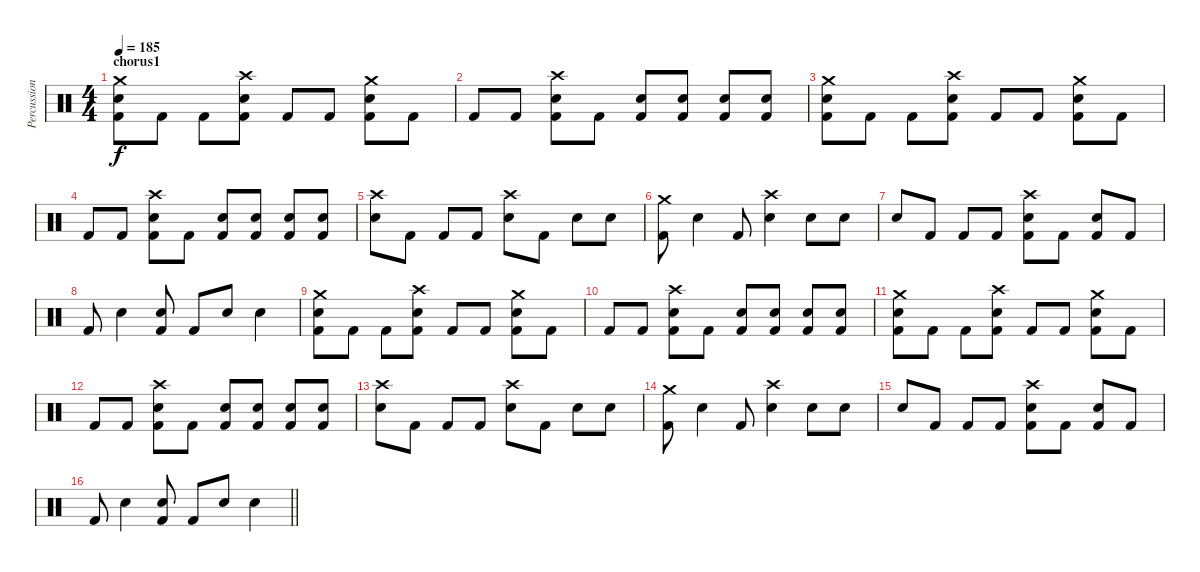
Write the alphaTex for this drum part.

\track ("Percussion" "Percussion") {instrument percussion}
\staff {score}
\articulation defaults
\ts (4 4)
\section ("" "chorus1")
\tempo 185
\clef neutral
\ks c
("Crash medium (hit)" "Snare (hit) 2" "Kick (hit) 2").8{dy f} "Kick (hit) 2".8 "Kick (hit) 2".8 ("Crash high (hit)" "Snare (hit) 2" "Kick (hit) 2").8 "Kick (hit) 2".8 "Kick (hit) 2".8 ("Crash medium (hit)" "Snare (hit) 2" "Kick (hit) 2").8 "Kick (hit) 2".8 |
"Kick (hit) 2".8 "Kick (hit) 2".8 ("Crash high (hit)" "Snare (hit) 2" "Kick (hit) 2").8 "Kick (hit) 2".8 ("Snare (hit) 2" "Kick (hit) 2").8 ("Snare (hit) 2" "Kick (hit) 2").8 ("Snare (hit) 2" "Kick (hit) 2").8 ("Snare (hit) 2" "Kick (hit) 2").8 |
("Crash medium (hit)" "Snare (hit) 2" "Kick (hit) 2").8 "Kick (hit) 2".8 "Kick (hit) 2".8 ("Crash high (hit)" "Snare (hit) 2" "Kick (hit) 2").8 "Kick (hit) 2".8 "Kick (hit) 2".8 ("Crash medium (hit)" "Snare (hit) 2" "Kick (hit) 2").8 "Kick (hit) 2".8 |
"Kick (hit) 2".8 "Kick (hit) 2".8 ("Crash high (hit)" "Snare (hit) 2" "Kick (hit) 2").8 "Kick (hit) 2".8 ("Snare (hit) 2" "Kick (hit) 2").8 ("Snare (hit) 2" "Kick (hit) 2").8 ("Snare (hit) 2" "Kick (hit) 2").8 ("Snare (hit) 2" "Kick (hit) 2").8 |
("Crash high (hit)" "Snare (hit) 2").8 "Kick (hit) 2".8 "Kick (hit) 2".8 "Kick (hit) 2".8 ("Crash high (hit)" "Snare (hit) 2").8 "Kick (hit) 2".8 "Snare (hit) 2".8 "Snare (hit) 2".8 |
("Crash medium (hit)" "Kick (hit) 2").8 "Snare (hit) 2".4 "Kick (hit) 2".8 ("Crash high (hit)" "Snare (hit) 2").4 "Snare (hit) 2".8 "Snare (hit) 2".8 |
"Snare (hit) 2".8 "Kick (hit) 2".8 "Kick (hit) 2".8 "Kick (hit) 2".8 ("Crash high (hit)" "Snare (hit) 2" "Kick (hit) 2").8 "Kick (hit) 2".8 ("Snare (hit) 2" "Kick (hit) 2").8 "Kick (hit) 2".8 |
"Kick (hit) 2".8 "Snare (hit) 2".4 ("Snare (hit) 2" "Kick (hit) 2").8 "Kick (hit) 2".8 "Snare (hit) 2".8 "Snare (hit) 2".4 |
("Crash medium (hit)" "Snare (hit) 2" "Kick (hit) 2").8 "Kick (hit) 2".8 "Kick (hit) 2".8 ("Crash high (hit)" "Snare (hit) 2" "Kick (hit) 2").8 "Kick (hit) 2".8 "Kick (hit) 2".8 ("Crash medium (hit)" "Snare (hit) 2" "Kick (hit) 2").8 "Kick (hit) 2".8 |
"Kick (hit) 2".8 "Kick (hit) 2".8 ("Crash high (hit)" "Snare (hit) 2" "Kick (hit) 2").8 "Kick (hit) 2".8 ("Snare (hit) 2" "Kick (hit) 2").8 ("Snare (hit) 2" "Kick (hit) 2").8 ("Snare (hit) 2" "Kick (hit) 2").8 ("Snare (hit) 2" "Kick (hit) 2").8 |
("Crash medium (hit)" "Snare (hit) 2" "Kick (hit) 2").8 "Kick (hit) 2".8 "Kick (hit) 2".8 ("Crash high (hit)" "Snare (hit) 2" "Kick (hit) 2").8 "Kick (hit) 2".8 "Kick (hit) 2".8 ("Crash medium (hit)" "Snare (hit) 2" "Kick (hit) 2").8 "Kick (hit) 2".8 |
"Kick (hit) 2".8 "Kick (hit) 2".8 ("Crash high (hit)" "Snare (hit) 2" "Kick (hit) 2").8 "Kick (hit) 2".8 ("Snare (hit) 2" "Kick (hit) 2").8 ("Snare (hit) 2" "Kick (hit) 2").8 ("Snare (hit) 2" "Kick (hit) 2").8 ("Snare (hit) 2" "Kick (hit) 2").8 |
("Crash high (hit)" "Snare (hit) 2").8 "Kick (hit) 2".8 "Kick (hit) 2".8 "Kick (hit) 2".8 ("Crash high (hit)" "Snare (hit) 2").8 "Kick (hit) 2".8 "Snare (hit) 2".8 "Snare (hit) 2".8 |
("Crash medium (hit)" "Kick (hit) 2").8 "Snare (hit) 2".4 "Kick (hit) 2".8 ("Crash high (hit)" "Snare (hit) 2").4 "Snare (hit) 2".8 "Snare (hit) 2".8 |
"Snare (hit) 2".8 "Kick (hit) 2".8 "Kick (hit) 2".8 "Kick (hit) 2".8 ("Crash high (hit)" "Snare (hit) 2" "Kick (hit) 2").8 "Kick (hit) 2".8 ("Snare (hit) 2" "Kick (hit) 2").8 "Kick (hit) 2".8 |
\barLineRight lightlight "Kick (hit) 2".8 "Snare (hit) 2".4
("Snare (hit) 2" "Kick (hit) 2").8 "Kick (hit) 2".8 "Snare (hit) 2".8 "Snare (hit) 2".4
